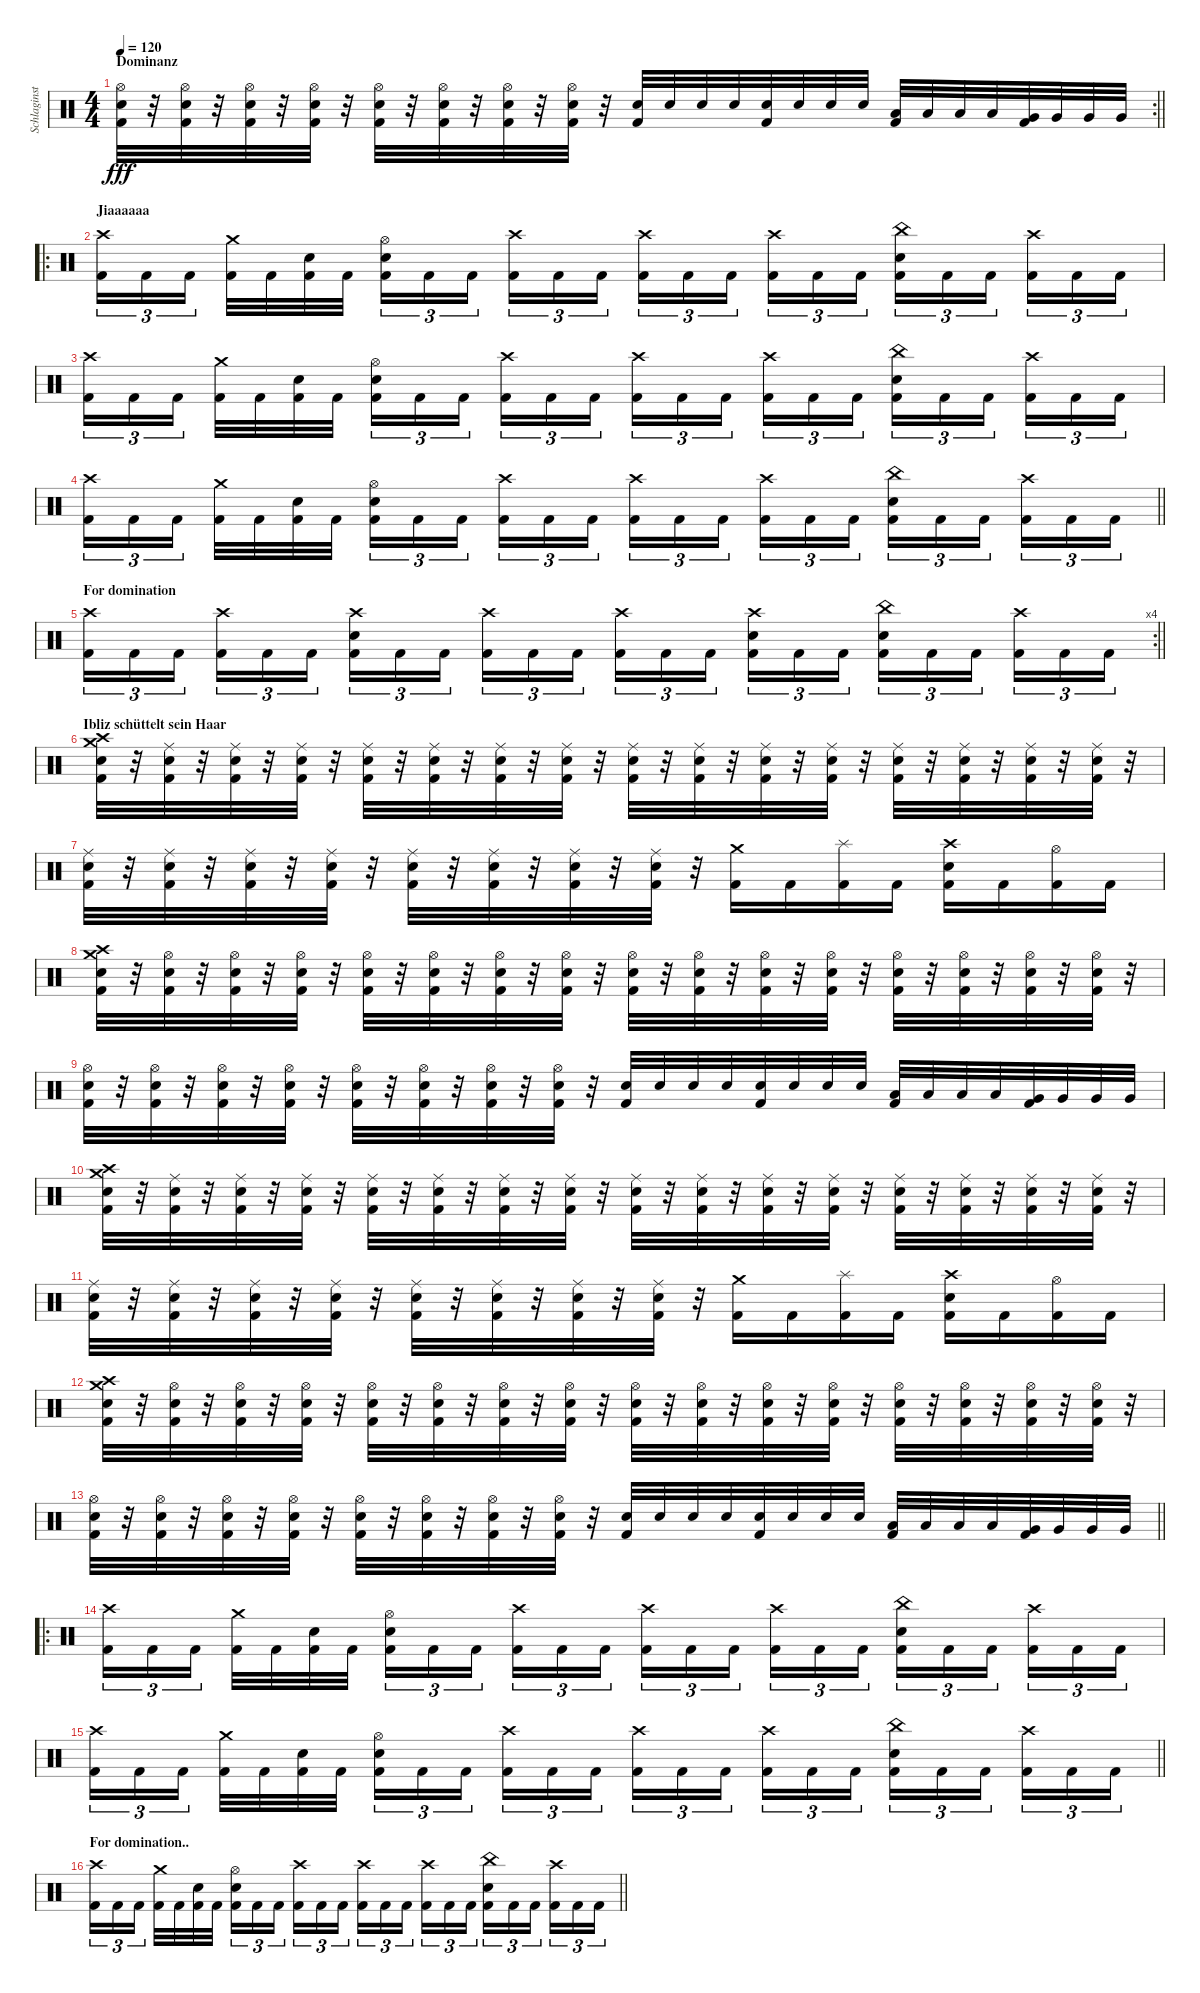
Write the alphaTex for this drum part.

\track ("Schlaginstrumente - Auswahl" "Schlaginst") {instrument percussion}
\staff {score}
\articulation defaults
\rc 2
\ts (4 4)
\section ("" "Dominanz")
\tempo 120
\clef neutral
\barLineRight lightlight
\ks c
("Hi-Hat (open)" "Electric Snare (hit)" "Kick (hit) 2").32{dy fff} r.32 ("Hi-Hat (open)" "Electric Snare (hit)" "Kick (hit) 2").32 r.32 ("Hi-Hat (open)" "Electric Snare (hit)" "Kick (hit) 2").32 r.32 ("Hi-Hat (open)" "Electric Snare (hit)" "Kick (hit) 2").32 r.32 ("Hi-Hat (open)" "Electric Snare (hit)" "Kick (hit) 2").32 r.32 ("Hi-Hat (open)" "Electric Snare (hit)" "Kick (hit) 2").32 r.32 ("Hi-Hat (open)" "Electric Snare (hit)" "Kick (hit) 2").32 r.32 ("Hi-Hat (open)" "Electric Snare (hit)" "Kick (hit) 2").32 r.32 ("Electric Snare (hit)" "Kick (hit) 2").32 "Electric Snare (hit)".32 "Electric Snare (hit)".32 "Electric Snare (hit)".32 ("Electric Snare (hit)" "Kick (hit) 2").32 "Electric Snare (hit)".32 "Electric Snare (hit)".32 "Electric Snare (hit)".32 ("Low Tom (hit)" "Kick (hit) 2").32 "Low Tom (hit)".32 "Low Tom (hit)".32 "Low Tom (hit)".32 ("Very Low Tom (hit)" "Kick (hit) 2").32 "Very Low Tom (hit)".32 "Very Low Tom (hit)".32 "Very Low Tom (hit)".32 |
\ro
\section ("" "Jiaaaaaa")
("Crash high (hit)" "Kick (hit) 2").16{tu (3 2)} "Kick (hit) 2".16{tu (3 2)} "Kick (hit) 2".16{tu (3 2) beam splitsecondary} ("Crash medium (hit)" "Kick (hit) 2").32 "Kick (hit) 2".32 ("Electric Snare (hit)" "Kick (hit) 2").32 "Kick (hit) 2".32 ("Hi-Hat (open)" "Electric Snare (hit)" "Kick (hit) 2").16{tu (3 2)} "Kick (hit) 2".16{tu (3 2)} "Kick (hit) 2".16{tu (3 2) beam splitsecondary} ("Crash high (hit)" "Kick (hit) 2").16{tu (3 2)} "Kick (hit) 2".16{tu (3 2)} "Kick (hit) 2".16{tu (3 2)} ("Crash high (hit)" "Kick (hit) 2").16{tu (3 2)} "Kick (hit) 2".16{tu (3 2)} "Kick (hit) 2".16{tu (3 2) beam splitsecondary} ("Crash high (hit)" "Kick (hit) 2").16{tu (3 2)} "Kick (hit) 2".16{tu (3 2)} "Kick (hit) 2".16{tu (3 2)} ("China (hit)" "Electric Snare (hit)" "Kick (hit) 2").16{tu (3 2)} "Kick (hit) 2".16{tu (3 2)} "Kick (hit) 2".16{tu (3 2) beam splitsecondary} ("Crash high (hit)" "Kick (hit) 2").16{tu (3 2)} "Kick (hit) 2".16{tu (3 2)} "Kick (hit) 2".16{tu (3 2)} |
("Crash high (hit)" "Kick (hit) 2").16{tu (3 2)} "Kick (hit) 2".16{tu (3 2)} "Kick (hit) 2".16{tu (3 2) beam splitsecondary} ("Crash medium (hit)" "Kick (hit) 2").32 "Kick (hit) 2".32 ("Electric Snare (hit)" "Kick (hit) 2").32 "Kick (hit) 2".32 ("Hi-Hat (open)" "Electric Snare (hit)" "Kick (hit) 2").16{tu (3 2)} "Kick (hit) 2".16{tu (3 2)} "Kick (hit) 2".16{tu (3 2) beam splitsecondary} ("Crash high (hit)" "Kick (hit) 2").16{tu (3 2)} "Kick (hit) 2".16{tu (3 2)} "Kick (hit) 2".16{tu (3 2)} ("Crash high (hit)" "Kick (hit) 2").16{tu (3 2)} "Kick (hit) 2".16{tu (3 2)} "Kick (hit) 2".16{tu (3 2) beam splitsecondary} ("Crash high (hit)" "Kick (hit) 2").16{tu (3 2)} "Kick (hit) 2".16{tu (3 2)} "Kick (hit) 2".16{tu (3 2)} ("China (hit)" "Electric Snare (hit)" "Kick (hit) 2").16{tu (3 2)} "Kick (hit) 2".16{tu (3 2)} "Kick (hit) 2".16{tu (3 2) beam splitsecondary} ("Crash high (hit)" "Kick (hit) 2").16{tu (3 2)} "Kick (hit) 2".16{tu (3 2)} "Kick (hit) 2".16{tu (3 2)} |
\barLineRight lightlight
("Crash high (hit)" "Kick (hit) 2").16{tu (3 2)} "Kick (hit) 2".16{tu (3 2)} "Kick (hit) 2".16{tu (3 2) beam splitsecondary} ("Crash medium (hit)" "Kick (hit) 2").32 "Kick (hit) 2".32 ("Electric Snare (hit)" "Kick (hit) 2").32 "Kick (hit) 2".32 ("Hi-Hat (open)" "Electric Snare (hit)" "Kick (hit) 2").16{tu (3 2)} "Kick (hit) 2".16{tu (3 2)} "Kick (hit) 2".16{tu (3 2) beam splitsecondary} ("Crash high (hit)" "Kick (hit) 2").16{tu (3 2)} "Kick (hit) 2".16{tu (3 2)} "Kick (hit) 2".16{tu (3 2)} ("Crash high (hit)" "Kick (hit) 2").16{tu (3 2)} "Kick (hit) 2".16{tu (3 2)} "Kick (hit) 2".16{tu (3 2) beam splitsecondary} ("Crash high (hit)" "Kick (hit) 2").16{tu (3 2)} "Kick (hit) 2".16{tu (3 2)} "Kick (hit) 2".16{tu (3 2)} ("China (hit)" "Electric Snare (hit)" "Kick (hit) 2").16{tu (3 2)} "Kick (hit) 2".16{tu (3 2)} "Kick (hit) 2".16{tu (3 2) beam splitsecondary} ("Crash high (hit)" "Kick (hit) 2").16{tu (3 2)} "Kick (hit) 2".16{tu (3 2)} "Kick (hit) 2".16{tu (3 2)} |
\rc 4
\section ("" "For domination")
\barLineRight lightlight
("Crash high (hit)" "Kick (hit) 2").16{tu (3 2)} "Kick (hit) 2".16{tu (3 2)} "Kick (hit) 2".16{tu (3 2) beam splitsecondary} ("Crash high (hit)" "Kick (hit) 2").16{tu (3 2)} "Kick (hit) 2".16{tu (3 2)} "Kick (hit) 2".16{tu (3 2)} ("Crash high (hit)" "Electric Snare (hit)" "Kick (hit) 2").16{tu (3 2)} "Kick (hit) 2".16{tu (3 2)} "Kick (hit) 2".16{tu (3 2) beam splitsecondary} ("Crash high (hit)" "Kick (hit) 2").16{tu (3 2)} "Kick (hit) 2".16{tu (3 2)} "Kick (hit) 2".16{tu (3 2)} ("Crash high (hit)" "Kick (hit) 2").16{tu (3 2)} "Kick (hit) 2".16{tu (3 2)} "Kick (hit) 2".16{tu (3 2) beam splitsecondary} ("Crash high (hit)" "Electric Snare (hit)" "Kick (hit) 2").16{tu (3 2)} "Kick (hit) 2".16{tu (3 2)} "Kick (hit) 2".16{tu (3 2)} ("China (hit)" "Electric Snare (hit)" "Kick (hit) 2").16{tu (3 2)} "Kick (hit) 2".16{tu (3 2)} "Kick (hit) 2".16{tu (3 2) beam splitsecondary} ("Crash high (hit)" "Kick (hit) 2").16{tu (3 2)} "Kick (hit) 2".16{tu (3 2)} "Kick (hit) 2".16{tu (3 2)} |
\section ("" "Ibliz schüttelt sein Haar")
("Crash medium (hit)" "Crash high (hit)" "Electric Snare (hit)" "Kick (hit) 2").32 r.32 ("Ride (middle)" "Electric Snare (hit)" "Kick (hit) 2").32 r.32 ("Ride (middle)" "Electric Snare (hit)" "Kick (hit) 2").32 r.32 ("Ride (middle)" "Electric Snare (hit)" "Kick (hit) 2").32 r.32 ("Ride (middle)" "Electric Snare (hit)" "Kick (hit) 2").32 r.32 ("Ride (middle)" "Electric Snare (hit)" "Kick (hit) 2").32 r.32 ("Ride (middle)" "Electric Snare (hit)" "Kick (hit) 2").32 r.32 ("Ride (middle)" "Electric Snare (hit)" "Kick (hit) 2").32 r.32 ("Ride (middle)" "Electric Snare (hit)" "Kick (hit) 2").32 r.32 ("Ride (middle)" "Electric Snare (hit)" "Kick (hit) 2").32 r.32 ("Ride (middle)" "Electric Snare (hit)" "Kick (hit) 2").32 r.32 ("Ride (middle)" "Electric Snare (hit)" "Kick (hit) 2").32 r.32 ("Ride (middle)" "Electric Snare (hit)" "Kick (hit) 2").32 r.32 ("Ride (middle)" "Electric Snare (hit)" "Kick (hit) 2").32 r.32 ("Ride (middle)" "Electric Snare (hit)" "Kick (hit) 2").32 r.32 ("Ride (middle)" "Electric Snare (hit)" "Kick (hit) 2").32 r.32 |
("Ride (middle)" "Electric Snare (hit)" "Kick (hit) 2").32 r.32 ("Ride (middle)" "Electric Snare (hit)" "Kick (hit) 2").32 r.32 ("Ride (middle)" "Electric Snare (hit)" "Kick (hit) 2").32 r.32 ("Ride (middle)" "Electric Snare (hit)" "Kick (hit) 2").32 r.32 ("Ride (middle)" "Electric Snare (hit)" "Kick (hit) 2").32 r.32 ("Ride (middle)" "Electric Snare (hit)" "Kick (hit) 2").32 r.32 ("Ride (middle)" "Electric Snare (hit)" "Kick (hit) 2").32 r.32 ("Ride (middle)" "Electric Snare (hit)" "Kick (hit) 2").32 r.32 ("Crash medium (hit)" "Kick (hit) 2").16 "Kick (hit) 2".16 ("Splash (hit)" "Kick (hit) 2").16 "Kick (hit) 2".16 ("Crash high (hit)" "Electric Snare (hit)" "Kick (hit) 2").16 "Kick (hit) 2".16 ("Hi-Hat (open)" "Kick (hit) 2").16 "Kick (hit) 2".16 |
("Crash medium (hit)" "Crash high (hit)" "Electric Snare (hit)" "Kick (hit) 2").32 r.32 ("Hi-Hat (open)" "Electric Snare (hit)" "Kick (hit) 2").32 r.32 ("Hi-Hat (open)" "Electric Snare (hit)" "Kick (hit) 2").32 r.32 ("Hi-Hat (open)" "Electric Snare (hit)" "Kick (hit) 2").32 r.32 ("Hi-Hat (open)" "Electric Snare (hit)" "Kick (hit) 2").32 r.32 ("Hi-Hat (open)" "Electric Snare (hit)" "Kick (hit) 2").32 r.32 ("Hi-Hat (open)" "Electric Snare (hit)" "Kick (hit) 2").32 r.32 ("Hi-Hat (open)" "Electric Snare (hit)" "Kick (hit) 2").32 r.32 ("Hi-Hat (open)" "Electric Snare (hit)" "Kick (hit) 2").32 r.32 ("Hi-Hat (open)" "Electric Snare (hit)" "Kick (hit) 2").32 r.32 ("Hi-Hat (open)" "Electric Snare (hit)" "Kick (hit) 2").32 r.32 ("Hi-Hat (open)" "Electric Snare (hit)" "Kick (hit) 2").32 r.32 ("Hi-Hat (open)" "Electric Snare (hit)" "Kick (hit) 2").32 r.32 ("Hi-Hat (open)" "Electric Snare (hit)" "Kick (hit) 2").32 r.32 ("Hi-Hat (open)" "Electric Snare (hit)" "Kick (hit) 2").32 r.32 ("Hi-Hat (open)" "Electric Snare (hit)" "Kick (hit) 2").32 r.32 |
("Hi-Hat (open)" "Electric Snare (hit)" "Kick (hit) 2").32 r.32 ("Hi-Hat (open)" "Electric Snare (hit)" "Kick (hit) 2").32 r.32 ("Hi-Hat (open)" "Electric Snare (hit)" "Kick (hit) 2").32 r.32 ("Hi-Hat (open)" "Electric Snare (hit)" "Kick (hit) 2").32 r.32 ("Hi-Hat (open)" "Electric Snare (hit)" "Kick (hit) 2").32 r.32 ("Hi-Hat (open)" "Electric Snare (hit)" "Kick (hit) 2").32 r.32 ("Hi-Hat (open)" "Electric Snare (hit)" "Kick (hit) 2").32 r.32 ("Hi-Hat (open)" "Electric Snare (hit)" "Kick (hit) 2").32 r.32 ("Electric Snare (hit)" "Kick (hit) 2").32 "Electric Snare (hit)".32 "Electric Snare (hit)".32 "Electric Snare (hit)".32 ("Electric Snare (hit)" "Kick (hit) 2").32 "Electric Snare (hit)".32 "Electric Snare (hit)".32 "Electric Snare (hit)".32 ("Low Tom (hit)" "Kick (hit) 2").32 "Low Tom (hit)".32 "Low Tom (hit)".32 "Low Tom (hit)".32 ("Very Low Tom (hit)" "Kick (hit) 2").32 "Very Low Tom (hit)".32 "Very Low Tom (hit)".32 "Very Low Tom (hit)".32 |
("Crash medium (hit)" "Crash high (hit)" "Electric Snare (hit)" "Kick (hit) 2").32 r.32 ("Ride (middle)" "Electric Snare (hit)" "Kick (hit) 2").32 r.32 ("Ride (middle)" "Electric Snare (hit)" "Kick (hit) 2").32 r.32 ("Ride (middle)" "Electric Snare (hit)" "Kick (hit) 2").32 r.32 ("Ride (middle)" "Electric Snare (hit)" "Kick (hit) 2").32 r.32 ("Ride (middle)" "Electric Snare (hit)" "Kick (hit) 2").32 r.32 ("Ride (middle)" "Electric Snare (hit)" "Kick (hit) 2").32 r.32 ("Ride (middle)" "Electric Snare (hit)" "Kick (hit) 2").32 r.32 ("Ride (middle)" "Electric Snare (hit)" "Kick (hit) 2").32 r.32 ("Ride (middle)" "Electric Snare (hit)" "Kick (hit) 2").32 r.32 ("Ride (middle)" "Electric Snare (hit)" "Kick (hit) 2").32 r.32 ("Ride (middle)" "Electric Snare (hit)" "Kick (hit) 2").32 r.32 ("Ride (middle)" "Electric Snare (hit)" "Kick (hit) 2").32 r.32 ("Ride (middle)" "Electric Snare (hit)" "Kick (hit) 2").32 r.32 ("Ride (middle)" "Electric Snare (hit)" "Kick (hit) 2").32 r.32 ("Ride (middle)" "Electric Snare (hit)" "Kick (hit) 2").32 r.32 |
("Ride (middle)" "Electric Snare (hit)" "Kick (hit) 2").32 r.32 ("Ride (middle)" "Electric Snare (hit)" "Kick (hit) 2").32 r.32 ("Ride (middle)" "Electric Snare (hit)" "Kick (hit) 2").32 r.32 ("Ride (middle)" "Electric Snare (hit)" "Kick (hit) 2").32 r.32 ("Ride (middle)" "Electric Snare (hit)" "Kick (hit) 2").32 r.32 ("Ride (middle)" "Electric Snare (hit)" "Kick (hit) 2").32 r.32 ("Ride (middle)" "Electric Snare (hit)" "Kick (hit) 2").32 r.32 ("Ride (middle)" "Electric Snare (hit)" "Kick (hit) 2").32 r.32 ("Crash medium (hit)" "Kick (hit) 2").16 "Kick (hit) 2".16 ("Splash (hit)" "Kick (hit) 2").16 "Kick (hit) 2".16 ("Crash high (hit)" "Electric Snare (hit)" "Kick (hit) 2").16 "Kick (hit) 2".16 ("Hi-Hat (open)" "Kick (hit) 2").16 "Kick (hit) 2".16 |
("Crash medium (hit)" "Crash high (hit)" "Electric Snare (hit)" "Kick (hit) 2").32 r.32 ("Hi-Hat (open)" "Electric Snare (hit)" "Kick (hit) 2").32 r.32 ("Hi-Hat (open)" "Electric Snare (hit)" "Kick (hit) 2").32 r.32 ("Hi-Hat (open)" "Electric Snare (hit)" "Kick (hit) 2").32 r.32 ("Hi-Hat (open)" "Electric Snare (hit)" "Kick (hit) 2").32 r.32 ("Hi-Hat (open)" "Electric Snare (hit)" "Kick (hit) 2").32 r.32 ("Hi-Hat (open)" "Electric Snare (hit)" "Kick (hit) 2").32 r.32 ("Hi-Hat (open)" "Electric Snare (hit)" "Kick (hit) 2").32 r.32 ("Hi-Hat (open)" "Electric Snare (hit)" "Kick (hit) 2").32 r.32 ("Hi-Hat (open)" "Electric Snare (hit)" "Kick (hit) 2").32 r.32 ("Hi-Hat (open)" "Electric Snare (hit)" "Kick (hit) 2").32 r.32 ("Hi-Hat (open)" "Electric Snare (hit)" "Kick (hit) 2").32 r.32 ("Hi-Hat (open)" "Electric Snare (hit)" "Kick (hit) 2").32 r.32 ("Hi-Hat (open)" "Electric Snare (hit)" "Kick (hit) 2").32 r.32 ("Hi-Hat (open)" "Electric Snare (hit)" "Kick (hit) 2").32 r.32 ("Hi-Hat (open)" "Electric Snare (hit)" "Kick (hit) 2").32 r.32 |
\barLineRight lightlight
("Hi-Hat (open)" "Electric Snare (hit)" "Kick (hit) 2").32 r.32 ("Hi-Hat (open)" "Electric Snare (hit)" "Kick (hit) 2").32 r.32 ("Hi-Hat (open)" "Electric Snare (hit)" "Kick (hit) 2").32 r.32 ("Hi-Hat (open)" "Electric Snare (hit)" "Kick (hit) 2").32 r.32 ("Hi-Hat (open)" "Electric Snare (hit)" "Kick (hit) 2").32 r.32 ("Hi-Hat (open)" "Electric Snare (hit)" "Kick (hit) 2").32 r.32 ("Hi-Hat (open)" "Electric Snare (hit)" "Kick (hit) 2").32 r.32 ("Hi-Hat (open)" "Electric Snare (hit)" "Kick (hit) 2").32 r.32 ("Electric Snare (hit)" "Kick (hit) 2").32 "Electric Snare (hit)".32 "Electric Snare (hit)".32 "Electric Snare (hit)".32 ("Electric Snare (hit)" "Kick (hit) 2").32 "Electric Snare (hit)".32 "Electric Snare (hit)".32 "Electric Snare (hit)".32 ("Low Tom (hit)" "Kick (hit) 2").32 "Low Tom (hit)".32 "Low Tom (hit)".32 "Low Tom (hit)".32 ("Very Low Tom (hit)" "Kick (hit) 2").32 "Very Low Tom (hit)".32 "Very Low Tom (hit)".32 "Very Low Tom (hit)".32 |
\ro
("Crash high (hit)" "Kick (hit) 2").16{tu (3 2)} "Kick (hit) 2".16{tu (3 2)} "Kick (hit) 2".16{tu (3 2) beam splitsecondary} ("Crash medium (hit)" "Kick (hit) 2").32 "Kick (hit) 2".32 ("Electric Snare (hit)" "Kick (hit) 2").32 "Kick (hit) 2".32 ("Hi-Hat (open)" "Electric Snare (hit)" "Kick (hit) 2").16{tu (3 2)} "Kick (hit) 2".16{tu (3 2)} "Kick (hit) 2".16{tu (3 2) beam splitsecondary} ("Crash high (hit)" "Kick (hit) 2").16{tu (3 2)} "Kick (hit) 2".16{tu (3 2)} "Kick (hit) 2".16{tu (3 2)} ("Crash high (hit)" "Kick (hit) 2").16{tu (3 2)} "Kick (hit) 2".16{tu (3 2)} "Kick (hit) 2".16{tu (3 2) beam splitsecondary} ("Crash high (hit)" "Kick (hit) 2").16{tu (3 2)} "Kick (hit) 2".16{tu (3 2)} "Kick (hit) 2".16{tu (3 2)} ("China (hit)" "Electric Snare (hit)" "Kick (hit) 2").16{tu (3 2)} "Kick (hit) 2".16{tu (3 2)} "Kick (hit) 2".16{tu (3 2) beam splitsecondary} ("Crash high (hit)" "Kick (hit) 2").16{tu (3 2)} "Kick (hit) 2".16{tu (3 2)} "Kick (hit) 2".16{tu (3 2)} |
\barLineRight lightlight
("Crash high (hit)" "Kick (hit) 2").16{tu (3 2)} "Kick (hit) 2".16{tu (3 2)} "Kick (hit) 2".16{tu (3 2) beam splitsecondary} ("Crash medium (hit)" "Kick (hit) 2").32 "Kick (hit) 2".32 ("Electric Snare (hit)" "Kick (hit) 2").32 "Kick (hit) 2".32 ("Hi-Hat (open)" "Electric Snare (hit)" "Kick (hit) 2").16{tu (3 2)} "Kick (hit) 2".16{tu (3 2)} "Kick (hit) 2".16{tu (3 2) beam splitsecondary} ("Crash high (hit)" "Kick (hit) 2").16{tu (3 2)} "Kick (hit) 2".16{tu (3 2)} "Kick (hit) 2".16{tu (3 2)} ("Crash high (hit)" "Kick (hit) 2").16{tu (3 2)} "Kick (hit) 2".16{tu (3 2)} "Kick (hit) 2".16{tu (3 2) beam splitsecondary} ("Crash high (hit)" "Kick (hit) 2").16{tu (3 2)} "Kick (hit) 2".16{tu (3 2)} "Kick (hit) 2".16{tu (3 2)} ("China (hit)" "Electric Snare (hit)" "Kick (hit) 2").16{tu (3 2)} "Kick (hit) 2".16{tu (3 2)} "Kick (hit) 2".16{tu (3 2) beam splitsecondary} ("Crash high (hit)" "Kick (hit) 2").16{tu (3 2)} "Kick (hit) 2".16{tu (3 2)} "Kick (hit) 2".16{tu (3 2)} |
\section ("" "For domination..")
\barLineRight lightlight
("Crash high (hit)" "Kick (hit) 2").16{tu (3 2)} "Kick (hit) 2".16{tu (3 2)} "Kick (hit) 2".16{tu (3 2) beam splitsecondary} ("Crash medium (hit)" "Kick (hit) 2").32 "Kick (hit) 2".32 ("Electric Snare (hit)" "Kick (hit) 2").32 "Kick (hit) 2".32 ("Hi-Hat (open)" "Electric Snare (hit)" "Kick (hit) 2").16{tu (3 2)} "Kick (hit) 2".16{tu (3 2)} "Kick (hit) 2".16{tu (3 2) beam splitsecondary} ("Crash high (hit)" "Kick (hit) 2").16{tu (3 2)} "Kick (hit) 2".16{tu (3 2)} "Kick (hit) 2".16{tu (3 2)} ("Crash high (hit)" "Kick (hit) 2").16{tu (3 2)} "Kick (hit) 2".16{tu (3 2)} "Kick (hit) 2".16{tu (3 2) beam splitsecondary} ("Crash high (hit)" "Kick (hit) 2").16{tu (3 2)} "Kick (hit) 2".16{tu (3 2)} "Kick (hit) 2".16{tu (3 2)} ("China (hit)" "Electric Snare (hit)" "Kick (hit) 2").16{tu (3 2)} "Kick (hit) 2".16{tu (3 2)} "Kick (hit) 2".16{tu (3 2) beam splitsecondary} ("Crash high (hit)" "Kick (hit) 2").16{tu (3 2)} "Kick (hit) 2".16{tu (3 2)} "Kick (hit) 2".16{tu (3 2)}
